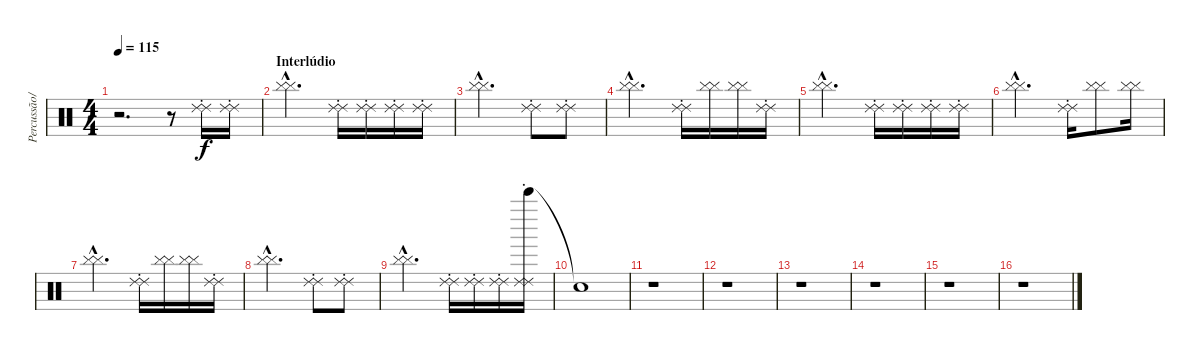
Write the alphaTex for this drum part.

\track ("Percussão/DJ" "Percussão/") {instrument percussion}
\staff {score}
\articulation defaults
\ts (4 4)
\tempo 115
\clef neutral
\ks c
r.2{d dy f} r.8 ("Ride (choke) 2" "Ride (choke) 2").16 ("Ride (choke) 2" "Ride (choke) 2").16 |
\section ("" "Interlúdio")
("Cymbal (hit)"{hac} "Cymbal (hit)"{hac}).2{d} ("Ride (choke) 2" "Ride (choke) 2").16 ("Ride (choke) 2" "Ride (choke) 2").16 ("Ride (choke) 2" "Ride (choke) 2").16 ("Ride (choke) 2" "Ride (choke) 2").16 |
("Cymbal (hit)"{hac} "Cymbal (hit)"{hac}).2{d} ("Ride (choke) 2" "Ride (choke) 2").8 ("Ride (choke) 2" "Ride (choke) 2").8 |
("Cymbal (hit)"{hac} "Cymbal (hit)"{hac}).2{d} ("Ride (choke) 2" "Ride (choke) 2").16 ("Cymbal (hit)" "Cymbal (hit)").16 ("Cymbal (hit)" "Cymbal (hit)").16 ("Ride (choke) 2" "Ride (choke) 2").16 |
("Cymbal (hit)"{hac} "Cymbal (hit)"{hac}).2{d} ("Ride (choke) 2" "Ride (choke) 2").16 ("Ride (choke) 2" "Ride (choke) 2").16 ("Ride (choke) 2" "Ride (choke) 2").16 ("Ride (choke) 2" "Ride (choke) 2").16 |
("Cymbal (hit)"{hac} "Cymbal (hit)"{hac}).2{d} ("Ride (choke) 2" "Ride (choke) 2").16 ("Cymbal (hit)" "Cymbal (hit)").8 ("Cymbal (hit)" "Cymbal (hit)").16 |
("Cymbal (hit)"{hac} "Cymbal (hit)"{hac}).2{d} ("Ride (choke) 2" "Ride (choke) 2").16 ("Cymbal (hit)" "Cymbal (hit)").16 ("Cymbal (hit)" "Cymbal (hit)").16 ("Ride (choke) 2" "Ride (choke) 2").16 |
("Cymbal (hit)"{hac} "Cymbal (hit)"{hac}).2{d} ("Ride (choke) 2" "Ride (choke) 2").8 ("Ride (choke) 2" "Ride (choke) 2").8 |
("Cymbal (hit)"{hac} "Cymbal (hit)"{hac}).2{d} ("Ride (choke) 2" "Ride (choke) 2").16 ("Ride (choke) 2" "Ride (choke) 2").16 ("Ride (choke) 2" "Ride (choke) 2").16 ("Bell Tree (hit)" "Ride (choke) 2" "Ride (choke) 2").16 |
"Snare (hit)"{t}.1 |
r.1 |
r.1 |
r.1 |
r.1 |
r.1 |
r.1
